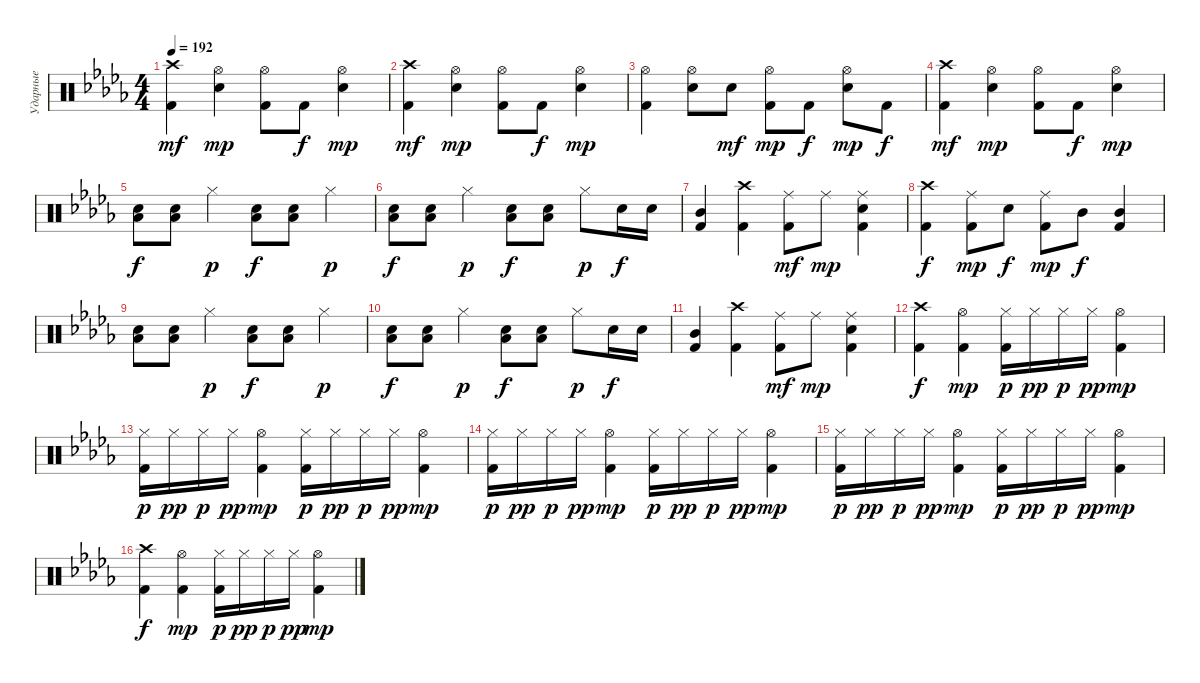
\track ("Ударные" "Ударные") {instrument percussion}
\staff {score}
\articulation defaults
\ts (4 4)
\tempo 192
\clef neutral
\ks bbminor
("Crash high (hit)" "Kick (hit) 2").4{dy mf} ("Hi-Hat (open)" "Electric Snare (hit)").4{dy mp} ("Hi-Hat (open)" "Kick (hit) 2").8 "Kick (hit) 2".8{dy f} ("Hi-Hat (open)" "Electric Snare (hit)").4{dy mp} |
("Crash high (hit)" "Kick (hit) 2").4{dy mf} ("Hi-Hat (open)" "Electric Snare (hit)").4{dy mp} ("Hi-Hat (open)" "Kick (hit) 2").8 "Kick (hit) 2".8{dy f} ("Hi-Hat (open)" "Electric Snare (hit)").4{dy mp} |
("Hi-Hat (open)" "Kick (hit) 2").4 ("Hi-Hat (open)" "Electric Snare (hit)").8 "Electric Snare (hit)".8{dy mf} ("Hi-Hat (open)" "Kick (hit) 2").8{dy mp} "Kick (hit) 2".8{dy f} ("Hi-Hat (open)" "Electric Snare (hit)").8{dy mp} "Kick (hit) 2".8{dy f} |
("Crash high (hit)" "Kick (hit) 2").4{dy mf} ("Hi-Hat (open)" "Electric Snare (hit)").4{dy mp} ("Hi-Hat (open)" "Kick (hit) 2").8 "Kick (hit) 2".8{dy f} ("Hi-Hat (open)" "Electric Snare (hit)").4{dy mp} |
("Electric Snare (hit)" "Low Tom (hit)").8{dy f} ("Electric Snare (hit)" "Low Tom (hit)").8 "Hi-Hat (closed)".4{dy p} ("Electric Snare (hit)" "Low Tom (hit)").8{dy f} ("Electric Snare (hit)" "Low Tom (hit)").8 "Hi-Hat (closed)".4{dy p} |
("Electric Snare (hit)" "Low Tom (hit)").8{dy f} ("Electric Snare (hit)" "Low Tom (hit)").8 "Hi-Hat (closed)".4{dy p} ("Electric Snare (hit)" "Low Tom (hit)").8{dy f} ("Electric Snare (hit)" "Low Tom (hit)").8 "Hi-Hat (closed)".8{dy p} "Electric Snare (hit)".16{dy f} "Electric Snare (hit)".16 |
("Mid Tom (hit)" "Kick (hit) 2").4 ("Crash high (hit)" "Kick (hit) 2").4 ("Ride (middle)" "Kick (hit) 2").8{dy mf} "Ride (middle)".8{dy mp} ("Ride (middle)" "Electric Snare (hit)" "Kick (hit) 2").4 |
("Crash high (hit)" "Kick (hit) 2").4{dy f} ("Ride (middle)" "Kick (hit) 2").8{dy mp} "Electric Snare (hit)".8{dy f} ("Ride (middle)" "Kick (hit) 2").8{dy mp} "Mid Tom (hit)".8{dy f} ("Mid Tom (hit)" "Kick (hit) 2").4 |
("Electric Snare (hit)" "Low Tom (hit)").8 ("Electric Snare (hit)" "Low Tom (hit)").8 "Hi-Hat (closed)".4{dy p} ("Electric Snare (hit)" "Low Tom (hit)").8{dy f} ("Electric Snare (hit)" "Low Tom (hit)").8 "Hi-Hat (closed)".4{dy p} |
("Electric Snare (hit)" "Low Tom (hit)").8{dy f} ("Electric Snare (hit)" "Low Tom (hit)").8 "Hi-Hat (closed)".4{dy p} ("Electric Snare (hit)" "Low Tom (hit)").8{dy f} ("Electric Snare (hit)" "Low Tom (hit)").8 "Hi-Hat (closed)".8{dy p} "Electric Snare (hit)".16{dy f} "Electric Snare (hit)".16 |
("Mid Tom (hit)" "Kick (hit) 2").4 ("Crash high (hit)" "Kick (hit) 2").4 ("Ride (middle)" "Kick (hit) 2").8{dy mf} "Ride (middle)".8{dy mp} ("Ride (middle)" "Electric Snare (hit)" "Kick (hit) 2").4 |
("Crash high (hit)" "Kick (hit) 2").4{dy f} ("Hi-Hat (open)" "Kick (hit) 2").4{dy mp} ("Hi-Hat (closed)" "Kick (hit) 2").16{dy p} "Hi-Hat (closed)".16{dy pp} "Hi-Hat (closed)".16{dy p} "Hi-Hat (closed)".16{dy pp} ("Hi-Hat (open)" "Kick (hit) 2").4{dy mp} |
("Hi-Hat (closed)" "Kick (hit) 2").16{dy p} "Hi-Hat (closed)".16{dy pp} "Hi-Hat (closed)".16{dy p} "Hi-Hat (closed)".16{dy pp} ("Hi-Hat (open)" "Kick (hit) 2").4{dy mp} ("Hi-Hat (closed)" "Kick (hit) 2").16{dy p} "Hi-Hat (closed)".16{dy pp} "Hi-Hat (closed)".16{dy p} "Hi-Hat (closed)".16{dy pp} ("Hi-Hat (open)" "Kick (hit) 2").4{dy mp} |
("Hi-Hat (closed)" "Kick (hit) 2").16{dy p} "Hi-Hat (closed)".16{dy pp} "Hi-Hat (closed)".16{dy p} "Hi-Hat (closed)".16{dy pp} ("Hi-Hat (open)" "Kick (hit) 2").4{dy mp} ("Hi-Hat (closed)" "Kick (hit) 2").16{dy p} "Hi-Hat (closed)".16{dy pp} "Hi-Hat (closed)".16{dy p} "Hi-Hat (closed)".16{dy pp} ("Hi-Hat (open)" "Kick (hit) 2").4{dy mp} |
("Hi-Hat (closed)" "Kick (hit) 2").16{dy p} "Hi-Hat (closed)".16{dy pp} "Hi-Hat (closed)".16{dy p} "Hi-Hat (closed)".16{dy pp} ("Hi-Hat (open)" "Kick (hit) 2").4{dy mp} ("Hi-Hat (closed)" "Kick (hit) 2").16{dy p} "Hi-Hat (closed)".16{dy pp} "Hi-Hat (closed)".16{dy p} "Hi-Hat (closed)".16{dy pp} ("Hi-Hat (open)" "Kick (hit) 2").4{dy mp} |
("Crash high (hit)" "Kick (hit) 2").4{dy f} ("Hi-Hat (open)" "Kick (hit) 2").4{dy mp} ("Hi-Hat (closed)" "Kick (hit) 2").16{dy p} "Hi-Hat (closed)".16{dy pp} "Hi-Hat (closed)".16{dy p} "Hi-Hat (closed)".16{dy pp} ("Hi-Hat (open)" "Kick (hit) 2").4{dy mp}
